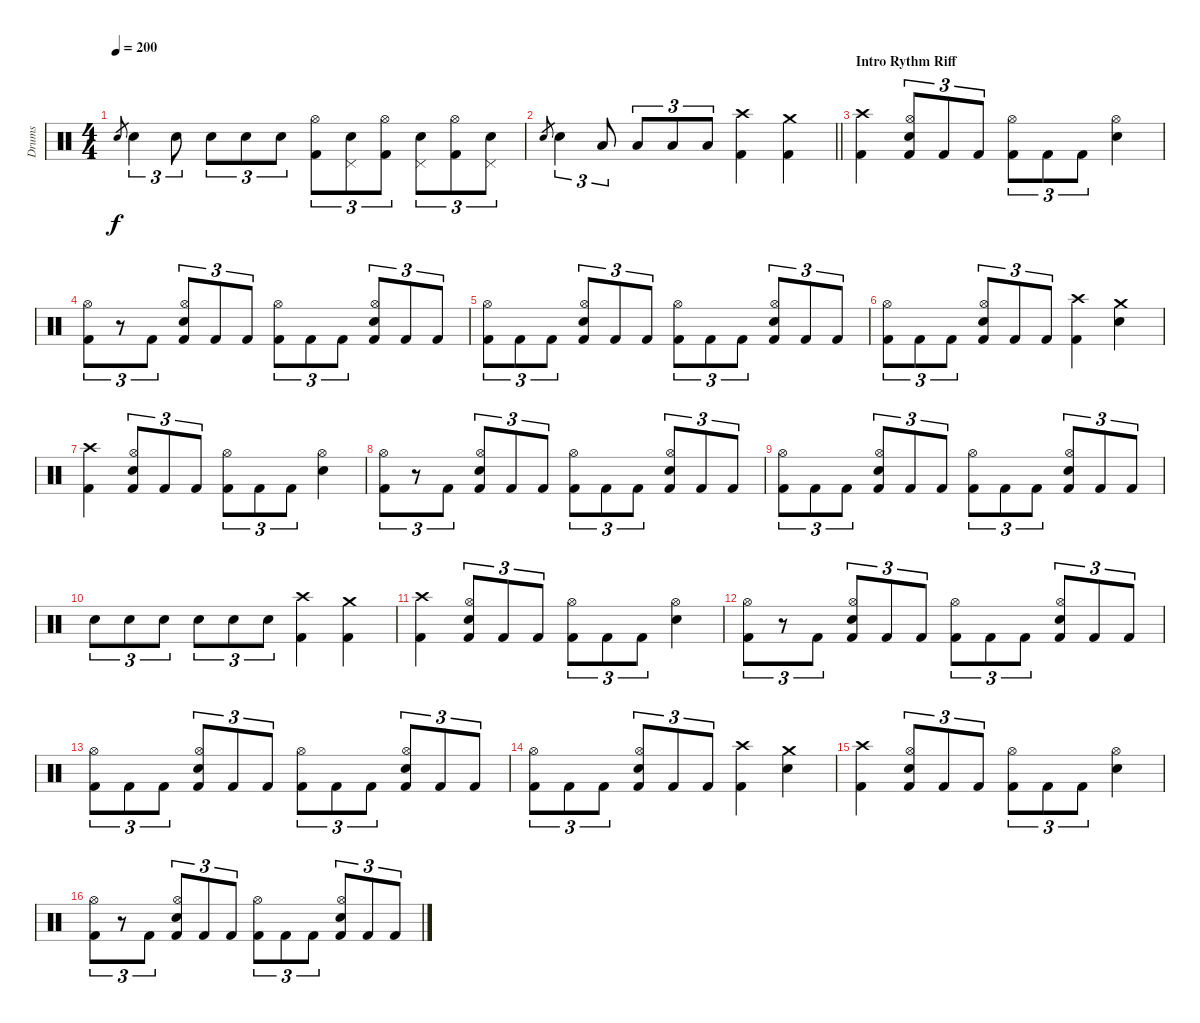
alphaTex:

\track ("Drums" "Drums") {instrument percussion}
\staff {score}
\articulation defaults
\ts (4 4)
\tempo 200
\clef neutral
\ks c "Electric Snare (hit)".8{gr dy f} "Electric Snare (hit)".4{tu (3 2)} "Electric Snare (hit)".8{tu (3 2)} "Electric Snare (hit)".8{tu (3 2)} "Electric Snare (hit)".8{tu (3 2)} "Electric Snare (hit)".8{tu (3 2)}
("Hi-Hat (open)" "Kick (hit) 2").8{tu (3 2)} ("Pedal Hi-Hat (hit)" "Electric Snare (hit)").8{tu (3 2)} ("Hi-Hat (open)" "Kick (hit) 2").8{tu (3 2)} ("Pedal Hi-Hat (hit)" "Electric Snare (hit)").8{tu (3 2)} ("Hi-Hat (open)" "Kick (hit) 2").8{tu (3 2)} ("Pedal Hi-Hat (hit)" "Electric Snare (hit)").8{tu (3 2)} |
\barLineRight lightlight "Electric Snare (hit)".8{gr} "Electric Snare (hit)".4{tu (3 2)} "Low Tom (hit)".8{tu (3 2)} "Low Tom (hit)".8{tu (3 2)} "Low Tom (hit)".8{tu (3 2)} "Low Tom (hit)".8{tu (3 2)}
("Crash high (hit)" "Kick (hit) 2").4 ("Crash medium (hit)" "Kick (hit) 2").4 |
\section ("" "Intro Rythm Riff")
("Crash high (hit)" "Kick (hit) 2").4 ("Hi-Hat (open)" "Electric Snare (hit)" "Kick (hit) 2").8{tu (3 2)} "Kick (hit) 2".8{tu (3 2)} "Kick (hit) 2".8{tu (3 2)} ("Hi-Hat (open)" "Kick (hit) 2").8{tu (3 2)} "Kick (hit) 2".8{tu (3 2)} "Kick (hit) 2".8{tu (3 2)} ("Hi-Hat (open)" "Electric Snare (hit)").4 |
("Hi-Hat (open)" "Kick (hit) 2").8{tu (3 2)} r.8{tu (3 2)} "Kick (hit) 2".8{tu (3 2)} ("Hi-Hat (open)" "Electric Snare (hit)" "Kick (hit) 2").8{tu (3 2)} "Kick (hit) 2".8{tu (3 2)} "Kick (hit) 2".8{tu (3 2)} ("Hi-Hat (open)" "Kick (hit) 2").8{tu (3 2)} "Kick (hit) 2".8{tu (3 2)} "Kick (hit) 2".8{tu (3 2)} ("Hi-Hat (open)" "Electric Snare (hit)" "Kick (hit) 2").8{tu (3 2)} "Kick (hit) 2".8{tu (3 2)} "Kick (hit) 2".8{tu (3 2)} |
("Hi-Hat (open)" "Kick (hit) 2").8{tu (3 2)} "Kick (hit) 2".8{tu (3 2)} "Kick (hit) 2".8{tu (3 2)} ("Hi-Hat (open)" "Electric Snare (hit)" "Kick (hit) 2").8{tu (3 2)} "Kick (hit) 2".8{tu (3 2)} "Kick (hit) 2".8{tu (3 2)} ("Hi-Hat (open)" "Kick (hit) 2").8{tu (3 2)} "Kick (hit) 2".8{tu (3 2)} "Kick (hit) 2".8{tu (3 2)} ("Hi-Hat (open)" "Electric Snare (hit)" "Kick (hit) 2").8{tu (3 2)} "Kick (hit) 2".8{tu (3 2)} "Kick (hit) 2".8{tu (3 2)} |
("Hi-Hat (open)" "Kick (hit) 2").8{tu (3 2)} "Kick (hit) 2".8{tu (3 2)} "Kick (hit) 2".8{tu (3 2)} ("Hi-Hat (open)" "Electric Snare (hit)" "Kick (hit) 2").8{tu (3 2)} "Kick (hit) 2".8{tu (3 2)} "Kick (hit) 2".8{tu (3 2)} ("Crash high (hit)" "Kick (hit) 2").4 ("Crash medium (hit)" "Electric Snare (hit)").4 |
("Crash high (hit)" "Kick (hit) 2").4 ("Hi-Hat (open)" "Electric Snare (hit)" "Kick (hit) 2").8{tu (3 2)} "Kick (hit) 2".8{tu (3 2)} "Kick (hit) 2".8{tu (3 2)} ("Hi-Hat (open)" "Kick (hit) 2").8{tu (3 2)} "Kick (hit) 2".8{tu (3 2)} "Kick (hit) 2".8{tu (3 2)} ("Hi-Hat (open)" "Electric Snare (hit)").4 |
("Hi-Hat (open)" "Kick (hit) 2").8{tu (3 2)} r.8{tu (3 2)} "Kick (hit) 2".8{tu (3 2)} ("Hi-Hat (open)" "Electric Snare (hit)" "Kick (hit) 2").8{tu (3 2)} "Kick (hit) 2".8{tu (3 2)} "Kick (hit) 2".8{tu (3 2)} ("Hi-Hat (open)" "Kick (hit) 2").8{tu (3 2)} "Kick (hit) 2".8{tu (3 2)} "Kick (hit) 2".8{tu (3 2)} ("Hi-Hat (open)" "Electric Snare (hit)" "Kick (hit) 2").8{tu (3 2)} "Kick (hit) 2".8{tu (3 2)} "Kick (hit) 2".8{tu (3 2)} |
("Hi-Hat (open)" "Kick (hit) 2").8{tu (3 2)} "Kick (hit) 2".8{tu (3 2)} "Kick (hit) 2".8{tu (3 2)} ("Hi-Hat (open)" "Electric Snare (hit)" "Kick (hit) 2").8{tu (3 2)} "Kick (hit) 2".8{tu (3 2)} "Kick (hit) 2".8{tu (3 2)} ("Hi-Hat (open)" "Kick (hit) 2").8{tu (3 2)} "Kick (hit) 2".8{tu (3 2)} "Kick (hit) 2".8{tu (3 2)} ("Hi-Hat (open)" "Electric Snare (hit)" "Kick (hit) 2").8{tu (3 2)} "Kick (hit) 2".8{tu (3 2)} "Kick (hit) 2".8{tu (3 2)} |
"Electric Snare (hit)".8{tu (3 2)} "Electric Snare (hit)".8{tu (3 2)} "Electric Snare (hit)".8{tu (3 2)} "Electric Snare (hit)".8{tu (3 2)} "Electric Snare (hit)".8{tu (3 2)} "Electric Snare (hit)".8{tu (3 2)} ("Crash high (hit)" "Kick (hit) 2").4 ("Crash medium (hit)" "Kick (hit) 2").4 |
("Crash high (hit)" "Kick (hit) 2").4 ("Hi-Hat (open)" "Electric Snare (hit)" "Kick (hit) 2").8{tu (3 2)} "Kick (hit) 2".8{tu (3 2)} "Kick (hit) 2".8{tu (3 2)} ("Hi-Hat (open)" "Kick (hit) 2").8{tu (3 2)} "Kick (hit) 2".8{tu (3 2)} "Kick (hit) 2".8{tu (3 2)} ("Hi-Hat (open)" "Electric Snare (hit)").4 |
("Hi-Hat (open)" "Kick (hit) 2").8{tu (3 2)} r.8{tu (3 2)} "Kick (hit) 2".8{tu (3 2)} ("Hi-Hat (open)" "Electric Snare (hit)" "Kick (hit) 2").8{tu (3 2)} "Kick (hit) 2".8{tu (3 2)} "Kick (hit) 2".8{tu (3 2)} ("Hi-Hat (open)" "Kick (hit) 2").8{tu (3 2)} "Kick (hit) 2".8{tu (3 2)} "Kick (hit) 2".8{tu (3 2)} ("Hi-Hat (open)" "Electric Snare (hit)" "Kick (hit) 2").8{tu (3 2)} "Kick (hit) 2".8{tu (3 2)} "Kick (hit) 2".8{tu (3 2)} |
("Hi-Hat (open)" "Kick (hit) 2").8{tu (3 2)} "Kick (hit) 2".8{tu (3 2)} "Kick (hit) 2".8{tu (3 2)} ("Hi-Hat (open)" "Electric Snare (hit)" "Kick (hit) 2").8{tu (3 2)} "Kick (hit) 2".8{tu (3 2)} "Kick (hit) 2".8{tu (3 2)} ("Hi-Hat (open)" "Kick (hit) 2").8{tu (3 2)} "Kick (hit) 2".8{tu (3 2)} "Kick (hit) 2".8{tu (3 2)} ("Hi-Hat (open)" "Electric Snare (hit)" "Kick (hit) 2").8{tu (3 2)} "Kick (hit) 2".8{tu (3 2)} "Kick (hit) 2".8{tu (3 2)} |
("Hi-Hat (open)" "Kick (hit) 2").8{tu (3 2)} "Kick (hit) 2".8{tu (3 2)} "Kick (hit) 2".8{tu (3 2)} ("Hi-Hat (open)" "Electric Snare (hit)" "Kick (hit) 2").8{tu (3 2)} "Kick (hit) 2".8{tu (3 2)} "Kick (hit) 2".8{tu (3 2)} ("Crash high (hit)" "Kick (hit) 2").4 ("Crash medium (hit)" "Electric Snare (hit)").4 |
("Crash high (hit)" "Kick (hit) 2").4 ("Hi-Hat (open)" "Electric Snare (hit)" "Kick (hit) 2").8{tu (3 2)} "Kick (hit) 2".8{tu (3 2)} "Kick (hit) 2".8{tu (3 2)} ("Hi-Hat (open)" "Kick (hit) 2").8{tu (3 2)} "Kick (hit) 2".8{tu (3 2)} "Kick (hit) 2".8{tu (3 2)} ("Hi-Hat (open)" "Electric Snare (hit)").4 |
("Hi-Hat (open)" "Kick (hit) 2").8{tu (3 2)} r.8{tu (3 2)} "Kick (hit) 2".8{tu (3 2)} ("Hi-Hat (open)" "Electric Snare (hit)" "Kick (hit) 2").8{tu (3 2)} "Kick (hit) 2".8{tu (3 2)} "Kick (hit) 2".8{tu (3 2)} ("Hi-Hat (open)" "Kick (hit) 2").8{tu (3 2)} "Kick (hit) 2".8{tu (3 2)} "Kick (hit) 2".8{tu (3 2)} ("Hi-Hat (open)" "Electric Snare (hit)" "Kick (hit) 2").8{tu (3 2)} "Kick (hit) 2".8{tu (3 2)} "Kick (hit) 2".8{tu (3 2)}
